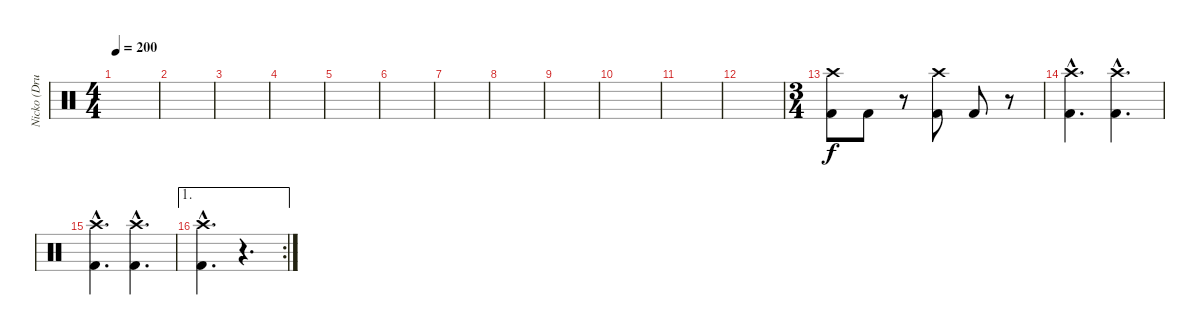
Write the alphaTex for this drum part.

\track ("Nicko (Drums)" "Nicko (Dru") {instrument percussion}
\staff {score}
\articulation defaults
\ts (4 4)
\tempo 200
\clef neutral
\ks c
|
|
|
|
|
|
|
|
|
|
|
|
\ts (3 4)
("Crash high (hit)" "Kick (hit) 2").8 "Kick (hit) 2".8 r.8 ("Crash high (hit)" "Kick (hit) 2").8 "Kick (hit) 2".8 r.8 |
("Crash high (hit)"{hac} "Kick (hit) 2"{hac}).4{d} ("Crash high (hit)"{hac} "Kick (hit) 2"{hac}).4{d} |
("Crash high (hit)"{hac} "Kick (hit) 2"{hac}).4{d} ("Crash high (hit)"{hac} "Kick (hit) 2"{hac}).4{d} |
\ae 1
\rc 2
("Crash high (hit)"{hac} "Kick (hit) 2"{hac}).4{d} r.4{d}
